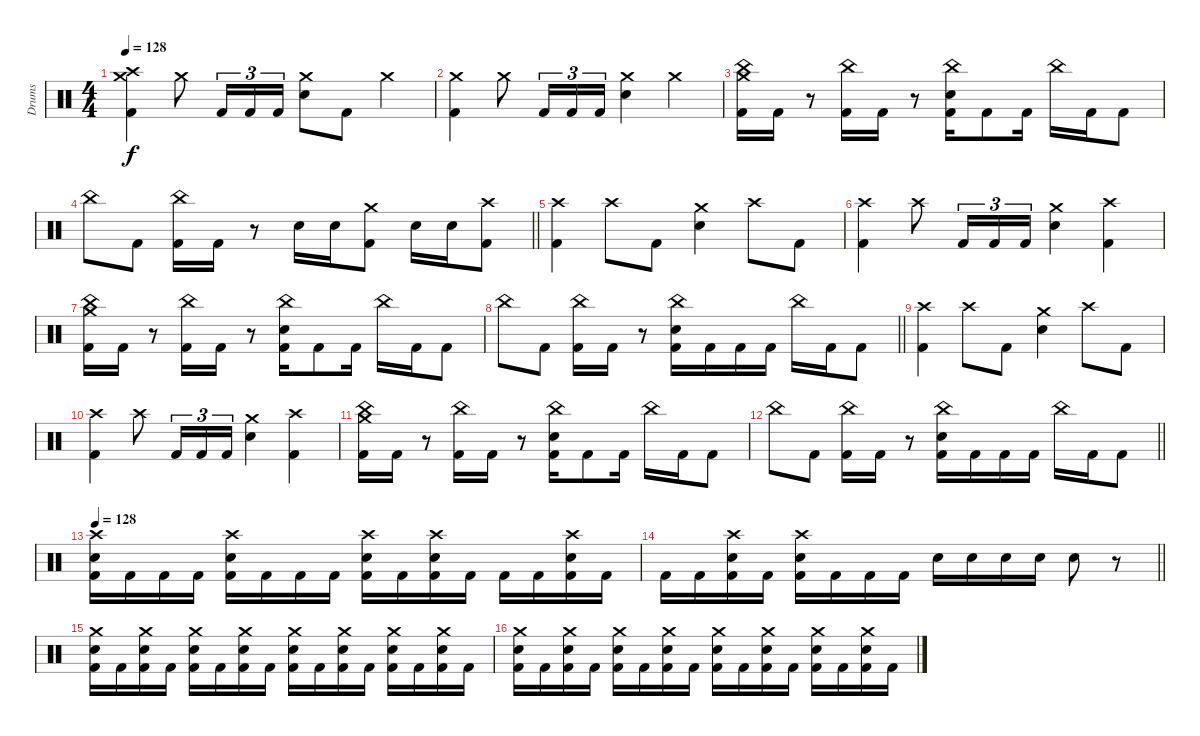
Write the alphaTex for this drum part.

\track ("Drums" "Drums") {instrument percussion}
\staff {score}
\articulation defaults
\ts (4 4)
\tempo 128
\clef neutral
\ks c
("Crash high (hit)" "Crash medium (hit)" "Kick (hit) 2").4{dy f} "Crash medium (hit)".8 "Kick (hit) 2".16{tu (3 2)} "Kick (hit) 2".16{tu (3 2)} "Kick (hit) 2".16{tu (3 2)} ("Crash medium (hit)" "Electric Snare (hit)").8 "Kick (hit) 2".8 "Crash medium (hit)".4 |
("Crash medium (hit)" "Kick (hit) 2").4 "Crash medium (hit)".8 "Kick (hit) 2".16{tu (3 2)} "Kick (hit) 2".16{tu (3 2)} "Kick (hit) 2".16{tu (3 2)} ("Crash medium (hit)" "Electric Snare (hit)").4 "Crash medium (hit)".4 |
("China (hit)" "Crash medium (hit)" "Kick (hit) 2").16 "Kick (hit) 2".16 r.8 ("China (hit)" "Kick (hit) 2").16 "Kick (hit) 2".16 r.8 ("China (hit)" "Electric Snare (hit)" "Kick (hit) 2").16 "Kick (hit) 2".8 "Kick (hit) 2".16 "China (hit)".16 "Kick (hit) 2".16 "Kick (hit) 2".8 |
\barLineRight lightlight "China (hit)".8 "Kick (hit) 2".8
("China (hit)" "Kick (hit) 2").16 "Kick (hit) 2".16 r.8 "Electric Snare (hit)".16 "Electric Snare (hit)".16 ("Crash medium (hit)" "Kick (hit) 2").8 "Electric Snare (hit)".16 "Electric Snare (hit)".16 ("Crash high (hit)" "Kick (hit) 2").8 |
("Crash high (hit)" "Kick (hit) 2").4 "Crash high (hit)".8 "Kick (hit) 2".8 ("Crash medium (hit)" "Electric Snare (hit)").4 "Crash high (hit)".8 "Kick (hit) 2".8 |
("Crash high (hit)" "Kick (hit) 2").4 "Crash high (hit)".8 "Kick (hit) 2".16{tu (3 2)} "Kick (hit) 2".16{tu (3 2)} "Kick (hit) 2".16{tu (3 2)} ("Crash medium (hit)" "Electric Snare (hit)").4 ("Crash high (hit)" "Kick (hit) 2").4 |
("China (hit)" "Crash medium (hit)" "Kick (hit) 2").16 "Kick (hit) 2".16 r.8 ("China (hit)" "Kick (hit) 2").16 "Kick (hit) 2".16 r.8 ("China (hit)" "Electric Snare (hit)" "Kick (hit) 2").16 "Kick (hit) 2".8 "Kick (hit) 2".16 "China (hit)".16 "Kick (hit) 2".16 "Kick (hit) 2".8 |
\barLineRight lightlight "China (hit)".8 "Kick (hit) 2".8
("China (hit)" "Kick (hit) 2").16 "Kick (hit) 2".16 r.8 ("China (hit)" "Electric Snare (hit)" "Kick (hit) 2").16 "Kick (hit) 2".16 "Kick (hit) 2".16 "Kick (hit) 2".16 "China (hit)".16 "Kick (hit) 2".16 "Kick (hit) 2".8 |
("Crash high (hit)" "Kick (hit) 2").4 "Crash high (hit)".8 "Kick (hit) 2".8 ("Crash medium (hit)" "Electric Snare (hit)").4 "Crash high (hit)".8 "Kick (hit) 2".8 |
("Crash high (hit)" "Kick (hit) 2").4 "Crash high (hit)".8 "Kick (hit) 2".16{tu (3 2)} "Kick (hit) 2".16{tu (3 2)} "Kick (hit) 2".16{tu (3 2)} ("Crash medium (hit)" "Electric Snare (hit)").4 ("Crash high (hit)" "Kick (hit) 2").4 |
("China (hit)" "Crash medium (hit)" "Kick (hit) 2").16 "Kick (hit) 2".16 r.8 ("China (hit)" "Kick (hit) 2").16 "Kick (hit) 2".16 r.8 ("China (hit)" "Electric Snare (hit)" "Kick (hit) 2").16 "Kick (hit) 2".8 "Kick (hit) 2".16 "China (hit)".16 "Kick (hit) 2".16 "Kick (hit) 2".8 |
\barLineRight lightlight "China (hit)".8 "Kick (hit) 2".8
("China (hit)" "Kick (hit) 2").16 "Kick (hit) 2".16 r.8 ("China (hit)" "Electric Snare (hit)" "Kick (hit) 2").16 "Kick (hit) 2".16 "Kick (hit) 2".16 "Kick (hit) 2".16 "China (hit)".16 "Kick (hit) 2".16 "Kick (hit) 2".8 |
\tempo 128
("Crash high (hit)" "Electric Snare (hit)" "Kick (hit) 2").16 "Kick (hit) 2".16 "Kick (hit) 2".16 "Kick (hit) 2".16 ("Crash high (hit)" "Electric Snare (hit)" "Kick (hit) 2").16 "Kick (hit) 2".16 "Kick (hit) 2".16 "Kick (hit) 2".16 ("Crash high (hit)" "Electric Snare (hit)" "Kick (hit) 2").16 "Kick (hit) 2".16 ("Crash high (hit)" "Electric Snare (hit)" "Kick (hit) 2").16 "Kick (hit) 2".16 "Kick (hit) 2".16 "Kick (hit) 2".16 ("Crash high (hit)" "Electric Snare (hit)" "Kick (hit) 2").16 "Kick (hit) 2".16 |
\barLineRight lightlight "Kick (hit) 2".16 "Kick (hit) 2".16
("Crash high (hit)" "Electric Snare (hit)" "Kick (hit) 2").16 "Kick (hit) 2".16 ("Crash high (hit)" "Electric Snare (hit)" "Kick (hit) 2").16 "Kick (hit) 2".16 "Kick (hit) 2".16 "Kick (hit) 2".16 "Electric Snare (hit)".16 "Electric Snare (hit)".16 "Electric Snare (hit)".16 "Electric Snare (hit)".16 "Electric Snare (hit)".8 r.8 |
("Crash medium (hit)" "Electric Snare (hit)" "Kick (hit) 2").16 "Kick (hit) 2".16 ("Crash medium (hit)" "Electric Snare (hit)" "Kick (hit) 2").16 "Kick (hit) 2".16 ("Crash medium (hit)" "Electric Snare (hit)" "Kick (hit) 2").16 "Kick (hit) 2".16 ("Crash medium (hit)" "Electric Snare (hit)" "Kick (hit) 2").16 "Kick (hit) 2".16 ("Crash medium (hit)" "Electric Snare (hit)" "Kick (hit) 2").16 "Kick (hit) 2".16 ("Crash medium (hit)" "Electric Snare (hit)" "Kick (hit) 2").16 "Kick (hit) 2".16 ("Crash medium (hit)" "Electric Snare (hit)" "Kick (hit) 2").16 "Kick (hit) 2".16 ("Crash medium (hit)" "Electric Snare (hit)" "Kick (hit) 2").16 "Kick (hit) 2".16 |
("Crash medium (hit)" "Electric Snare (hit)" "Kick (hit) 2").16 "Kick (hit) 2".16 ("Crash medium (hit)" "Electric Snare (hit)" "Kick (hit) 2").16 "Kick (hit) 2".16 ("Crash medium (hit)" "Electric Snare (hit)" "Kick (hit) 2").16 "Kick (hit) 2".16 ("Crash medium (hit)" "Electric Snare (hit)" "Kick (hit) 2").16 "Kick (hit) 2".16 ("Crash medium (hit)" "Electric Snare (hit)" "Kick (hit) 2").16 "Kick (hit) 2".16 ("Crash medium (hit)" "Electric Snare (hit)" "Kick (hit) 2").16 "Kick (hit) 2".16 ("Crash medium (hit)" "Electric Snare (hit)" "Kick (hit) 2").16 "Kick (hit) 2".16 ("Crash medium (hit)" "Electric Snare (hit)" "Kick (hit) 2").16 "Kick (hit) 2".16
